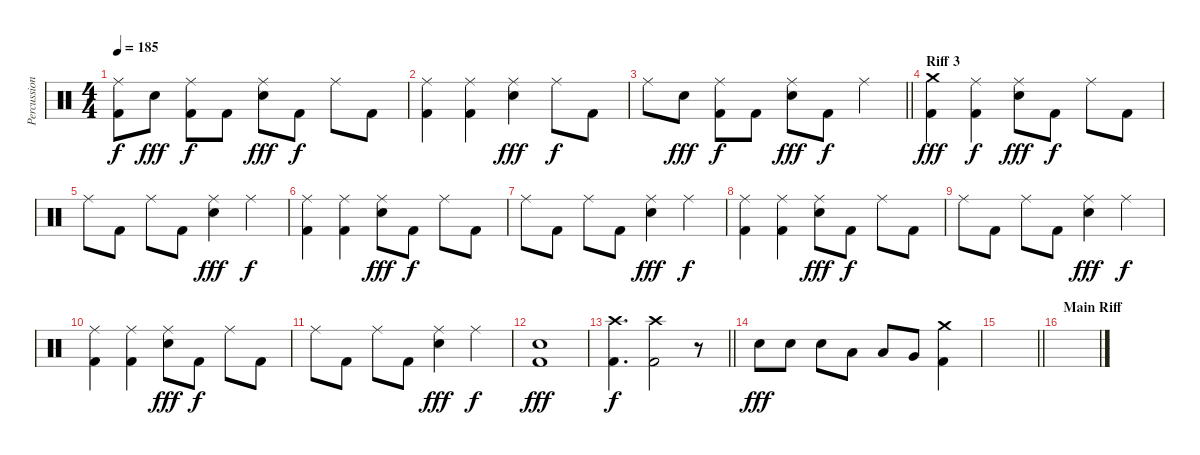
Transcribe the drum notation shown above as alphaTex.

\track ("Percussions" "Percussion") {instrument percussion}
\staff {score}
\articulation defaults
\ts (4 4)
\tempo 185
\clef neutral
\ks c
("Kick (hit) 2" "Ride (middle)").8{dy f} "Electric Snare (hit)".8{dy fff} ("Kick (hit) 2" "Ride (middle)").8{dy f} "Kick (hit) 2".8 ("Electric Snare (hit)" "Ride (middle)").8{dy fff} "Kick (hit) 2".8{dy f} "Ride (middle)".8 "Kick (hit) 2".8 |
("Kick (hit) 2" "Ride (middle)").4 ("Kick (hit) 2" "Ride (middle)").4 ("Electric Snare (hit)" "Ride (middle)").4{dy fff} "Ride (middle)".8{dy f} "Kick (hit) 2".8 |
\barLineRight lightlight "Ride (middle)".8 "Electric Snare (hit)".8{dy fff}
("Kick (hit) 2" "Ride (middle)").8{dy f} "Kick (hit) 2".8 ("Electric Snare (hit)" "Ride (middle)").8{dy fff} "Kick (hit) 2".8{dy f} "Ride (middle)".4 |
\section ("" "Riff 3")
("Crash medium (hit)" "Kick (hit) 2").4{dy fff} ("Kick (hit) 2" "Ride (middle)").4{dy f} ("Electric Snare (hit)" "Ride (middle)").8{dy fff} "Kick (hit) 2".8{dy f} "Ride (middle)".8 "Kick (hit) 2".8 |
"Ride (middle)".8 "Kick (hit) 2".8 "Ride (middle)".8 "Kick (hit) 2".8 ("Electric Snare (hit)" "Ride (middle)").4{dy fff} "Ride (middle)".4{dy f} |
("Kick (hit) 2" "Ride (middle)").4 ("Kick (hit) 2" "Ride (middle)").4 ("Electric Snare (hit)" "Ride (middle)").8{dy fff} "Kick (hit) 2".8{dy f} "Ride (middle)".8 "Kick (hit) 2".8 |
"Ride (middle)".8 "Kick (hit) 2".8 "Ride (middle)".8 "Kick (hit) 2".8 ("Electric Snare (hit)" "Ride (middle)").4{dy fff} "Ride (middle)".4{dy f} |
("Kick (hit) 2" "Ride (middle)").4 ("Kick (hit) 2" "Ride (middle)").4 ("Electric Snare (hit)" "Ride (middle)").8{dy fff} "Kick (hit) 2".8{dy f} "Ride (middle)".8 "Kick (hit) 2".8 |
"Ride (middle)".8 "Kick (hit) 2".8 "Ride (middle)".8 "Kick (hit) 2".8 ("Electric Snare (hit)" "Ride (middle)").4{dy fff} "Ride (middle)".4{dy f} |
("Kick (hit) 2" "Ride (middle)").4 ("Kick (hit) 2" "Ride (middle)").4 ("Electric Snare (hit)" "Ride (middle)").8{dy fff} "Kick (hit) 2".8{dy f} "Ride (middle)".8 "Kick (hit) 2".8 |
"Ride (middle)".8 "Kick (hit) 2".8 "Ride (middle)".8 "Kick (hit) 2".8 ("Electric Snare (hit)" "Ride (middle)").4{dy fff} "Ride (middle)".4{dy f} |
("Electric Snare (hit)" "Kick (hit) 2").1{dy fff} |
\barLineRight lightlight
("Crash high (hit)" "Kick (hit) 2").4{d dy f} ("Crash high (hit)" "Kick (hit) 2").2 r.8 |
"Electric Snare (hit)".8{dy fff} "Electric Snare (hit)".8 "Electric Snare (hit)".8 "Low Tom (hit)".8 "Low Tom (hit)".8 "Very Low Tom (hit)".8 ("Crash medium (hit)" "Kick (hit) 2").4 |
\barLineRight lightlight
|
\section ("" "Main Riff")
